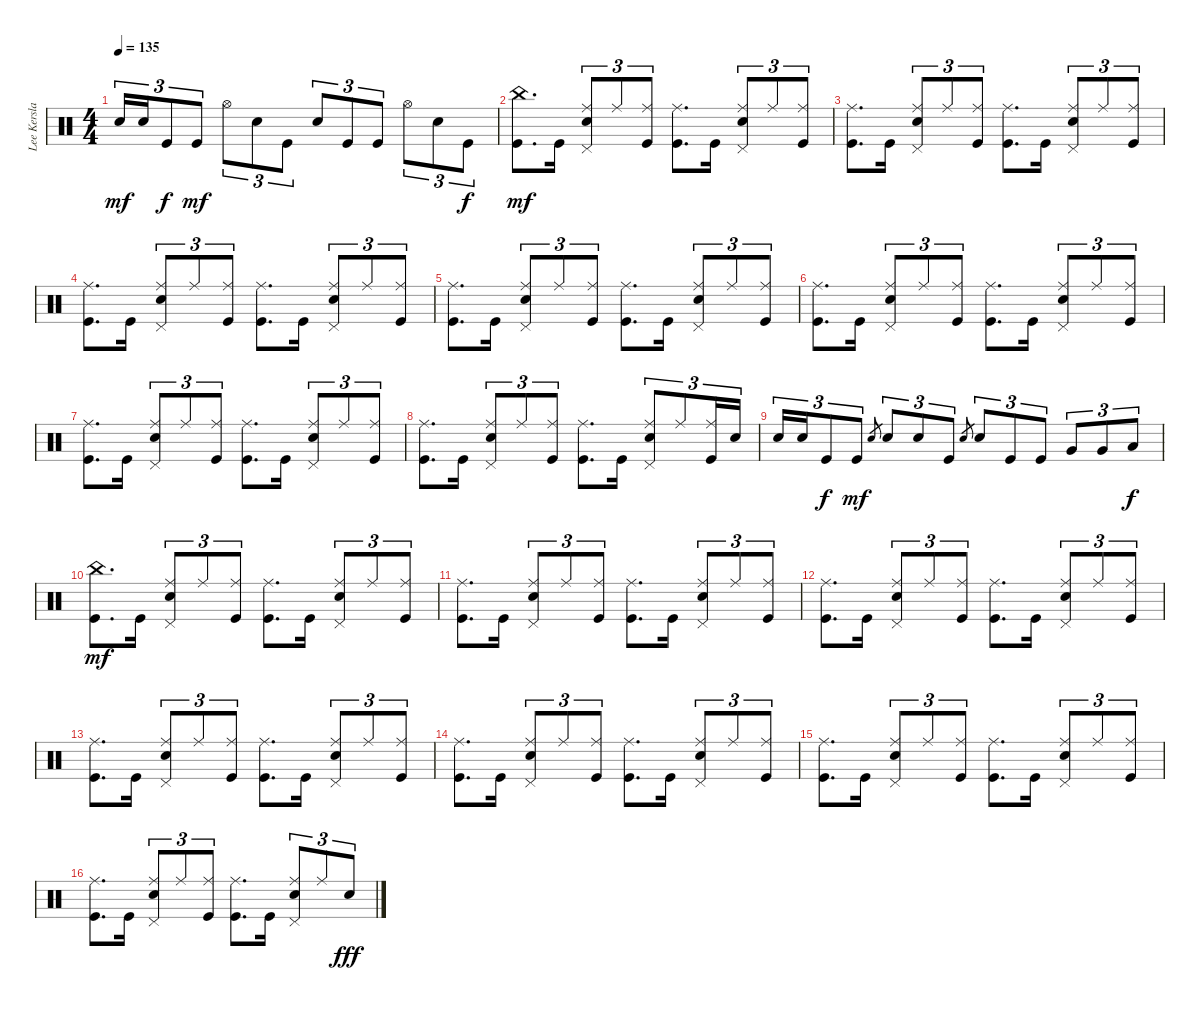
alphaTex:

\track ("Lee Kerslake (drums)" "Lee Kersla") {instrument percussion}
\staff {score}
\articulation defaults
\ts (4 4)
\tempo 135
\clef neutral
\ks c "Snare (hit) 2".16{tu (3 2) dy mf} "Snare (hit) 2".16{tu (3 2)} "Kick (hit)".8{tu (3 2) dy f} "Kick (hit)".8{tu (3 2) dy mf} "Hi-Hat (open)".8{tu (3 2)} "Snare (hit) 2".8{tu (3 2)} "Kick (hit)".8{tu (3 2)} "Snare (hit) 2".8{tu (3 2)} "Kick (hit)".8{tu (3 2)} "Kick (hit)".8{tu (3 2)} "Hi-Hat (open)".8{tu (3 2)} "Snare (hit) 2".8{tu (3 2)} "Kick (hit)".8{tu (3 2) dy f}
|
("China (hit)" "Kick (hit)").8{d dy mf} "Kick (hit)".16 ("Ride (middle)" "Pedal Hi-Hat (hit)" "Snare (hit) 2").8{tu (3 2)} "Ride (middle)".8{tu (3 2)} ("Ride (middle)" "Kick (hit)").8{tu (3 2)} ("Ride (middle)" "Kick (hit)").8{d} "Kick (hit)".16 ("Ride (middle)" "Pedal Hi-Hat (hit)" "Snare (hit) 2").8{tu (3 2)} "Ride (middle)".8{tu (3 2)} ("Ride (middle)" "Kick (hit)").8{tu (3 2)} |
("Ride (middle)" "Kick (hit)").8{d} "Kick (hit)".16 ("Ride (middle)" "Pedal Hi-Hat (hit)" "Snare (hit) 2").8{tu (3 2)} "Ride (middle)".8{tu (3 2)} ("Ride (middle)" "Kick (hit)").8{tu (3 2)} ("Ride (middle)" "Kick (hit)").8{d} "Kick (hit)".16 ("Ride (middle)" "Pedal Hi-Hat (hit)" "Snare (hit) 2").8{tu (3 2)} "Ride (middle)".8{tu (3 2)} ("Ride (middle)" "Kick (hit)").8{tu (3 2)} |
("Ride (middle)" "Kick (hit)").8{d} "Kick (hit)".16 ("Ride (middle)" "Pedal Hi-Hat (hit)" "Snare (hit) 2").8{tu (3 2)} "Ride (middle)".8{tu (3 2)} ("Ride (middle)" "Kick (hit)").8{tu (3 2)} ("Ride (middle)" "Kick (hit)").8{d} "Kick (hit)".16 ("Ride (middle)" "Pedal Hi-Hat (hit)" "Snare (hit) 2").8{tu (3 2)} "Ride (middle)".8{tu (3 2)} ("Ride (middle)" "Kick (hit)").8{tu (3 2)} |
("Ride (middle)" "Kick (hit)").8{d} "Kick (hit)".16 ("Ride (middle)" "Pedal Hi-Hat (hit)" "Snare (hit) 2").8{tu (3 2)} "Ride (middle)".8{tu (3 2)} ("Ride (middle)" "Kick (hit)").8{tu (3 2)} ("Ride (middle)" "Kick (hit)").8{d} "Kick (hit)".16 ("Ride (middle)" "Pedal Hi-Hat (hit)" "Snare (hit) 2").8{tu (3 2)} "Ride (middle)".8{tu (3 2)} ("Ride (middle)" "Kick (hit)").8{tu (3 2)} |
("Ride (middle)" "Kick (hit)").8{d} "Kick (hit)".16 ("Ride (middle)" "Pedal Hi-Hat (hit)" "Snare (hit) 2").8{tu (3 2)} "Ride (middle)".8{tu (3 2)} ("Ride (middle)" "Kick (hit)").8{tu (3 2)} ("Ride (middle)" "Kick (hit)").8{d} "Kick (hit)".16 ("Ride (middle)" "Pedal Hi-Hat (hit)" "Snare (hit) 2").8{tu (3 2)} "Ride (middle)".8{tu (3 2)} ("Ride (middle)" "Kick (hit)").8{tu (3 2)} |
("Ride (middle)" "Kick (hit)").8{d} "Kick (hit)".16 ("Ride (middle)" "Pedal Hi-Hat (hit)" "Snare (hit) 2").8{tu (3 2)} "Ride (middle)".8{tu (3 2)} ("Ride (middle)" "Kick (hit)").8{tu (3 2)} ("Ride (middle)" "Kick (hit)").8{d} "Kick (hit)".16 ("Ride (middle)" "Pedal Hi-Hat (hit)" "Snare (hit) 2").8{tu (3 2)} "Ride (middle)".8{tu (3 2)} ("Ride (middle)" "Kick (hit)").8{tu (3 2)} |
("Ride (middle)" "Kick (hit)").8{d} "Kick (hit)".16 ("Ride (middle)" "Pedal Hi-Hat (hit)" "Snare (hit) 2").8{tu (3 2)} "Ride (middle)".8{tu (3 2)} ("Ride (middle)" "Kick (hit)").8{tu (3 2)} ("Ride (middle)" "Kick (hit)").8{d} "Kick (hit)".16 ("Ride (middle)" "Pedal Hi-Hat (hit)" "Snare (hit) 2").8{tu (3 2)} "Ride (middle)".8{tu (3 2)} ("Ride (middle)" "Kick (hit)").16{tu (3 2)} "Snare (hit) 2".16{tu (3 2)} |
"Snare (hit) 2".16{tu (3 2)} "Snare (hit) 2".16{tu (3 2)} "Kick (hit)".8{tu (3 2) dy f} "Kick (hit)".8{tu (3 2) dy mf} "Snare (hit) 2".8{gr} "Snare (hit) 2".8{tu (3 2)} "Snare (hit) 2".8{tu (3 2)} "Kick (hit)".8{tu (3 2)} "Snare (hit) 2".8{gr} "Snare (hit) 2".8{tu (3 2)} "Kick (hit)".8{tu (3 2)} "Kick (hit)".8{tu (3 2)} "Very Low Tom (hit)".8{tu (3 2)} "Very Low Tom (hit)".8{tu (3 2)} "Low Floor Tom (hit)".8{tu (3 2) dy f} |
("China (hit)" "Kick (hit)").8{d dy mf} "Kick (hit)".16 ("Ride (middle)" "Pedal Hi-Hat (hit)" "Snare (hit) 2").8{tu (3 2)} "Ride (middle)".8{tu (3 2)} ("Ride (middle)" "Kick (hit)").8{tu (3 2)} ("Ride (middle)" "Kick (hit)").8{d} "Kick (hit)".16 ("Ride (middle)" "Pedal Hi-Hat (hit)" "Snare (hit) 2").8{tu (3 2)} "Ride (middle)".8{tu (3 2)} ("Ride (middle)" "Kick (hit)").8{tu (3 2)} |
("Ride (middle)" "Kick (hit)").8{d} "Kick (hit)".16 ("Ride (middle)" "Pedal Hi-Hat (hit)" "Snare (hit) 2").8{tu (3 2)} "Ride (middle)".8{tu (3 2)} ("Ride (middle)" "Kick (hit)").8{tu (3 2)} ("Ride (middle)" "Kick (hit)").8{d} "Kick (hit)".16 ("Ride (middle)" "Pedal Hi-Hat (hit)" "Snare (hit) 2").8{tu (3 2)} "Ride (middle)".8{tu (3 2)} ("Ride (middle)" "Kick (hit)").8{tu (3 2)} |
("Ride (middle)" "Kick (hit)").8{d} "Kick (hit)".16 ("Ride (middle)" "Pedal Hi-Hat (hit)" "Snare (hit) 2").8{tu (3 2)} "Ride (middle)".8{tu (3 2)} ("Ride (middle)" "Kick (hit)").8{tu (3 2)} ("Ride (middle)" "Kick (hit)").8{d} "Kick (hit)".16 ("Ride (middle)" "Pedal Hi-Hat (hit)" "Snare (hit) 2").8{tu (3 2)} "Ride (middle)".8{tu (3 2)} ("Ride (middle)" "Kick (hit)").8{tu (3 2)} |
("Ride (middle)" "Kick (hit)").8{d} "Kick (hit)".16 ("Ride (middle)" "Pedal Hi-Hat (hit)" "Snare (hit) 2").8{tu (3 2)} "Ride (middle)".8{tu (3 2)} ("Ride (middle)" "Kick (hit)").8{tu (3 2)} ("Ride (middle)" "Kick (hit)").8{d} "Kick (hit)".16 ("Ride (middle)" "Pedal Hi-Hat (hit)" "Snare (hit) 2").8{tu (3 2)} "Ride (middle)".8{tu (3 2)} ("Ride (middle)" "Kick (hit)").8{tu (3 2)} |
("Ride (middle)" "Kick (hit)").8{d} "Kick (hit)".16 ("Ride (middle)" "Pedal Hi-Hat (hit)" "Snare (hit) 2").8{tu (3 2)} "Ride (middle)".8{tu (3 2)} ("Ride (middle)" "Kick (hit)").8{tu (3 2)} ("Ride (middle)" "Kick (hit)").8{d} "Kick (hit)".16 ("Ride (middle)" "Pedal Hi-Hat (hit)" "Snare (hit) 2").8{tu (3 2)} "Ride (middle)".8{tu (3 2)} ("Ride (middle)" "Kick (hit)").8{tu (3 2)} |
("Ride (middle)" "Kick (hit)").8{d} "Kick (hit)".16 ("Ride (middle)" "Pedal Hi-Hat (hit)" "Snare (hit) 2").8{tu (3 2)} "Ride (middle)".8{tu (3 2)} ("Ride (middle)" "Kick (hit)").8{tu (3 2)} ("Ride (middle)" "Kick (hit)").8{d} "Kick (hit)".16 ("Ride (middle)" "Pedal Hi-Hat (hit)" "Snare (hit) 2").8{tu (3 2)} "Ride (middle)".8{tu (3 2)} ("Ride (middle)" "Kick (hit)").8{tu (3 2)} |
("Ride (middle)" "Kick (hit)").8{d} "Kick (hit)".16 ("Ride (middle)" "Pedal Hi-Hat (hit)" "Snare (hit) 2").8{tu (3 2)} "Ride (middle)".8{tu (3 2)} ("Ride (middle)" "Kick (hit)").8{tu (3 2)} ("Ride (middle)" "Kick (hit)").8{d} "Kick (hit)".16 ("Ride (middle)" "Pedal Hi-Hat (hit)" "Snare (hit) 2").8{tu (3 2)} "Ride (middle)".8{tu (3 2)} "Snare (hit) 2".8{tu (3 2) dy fff}
